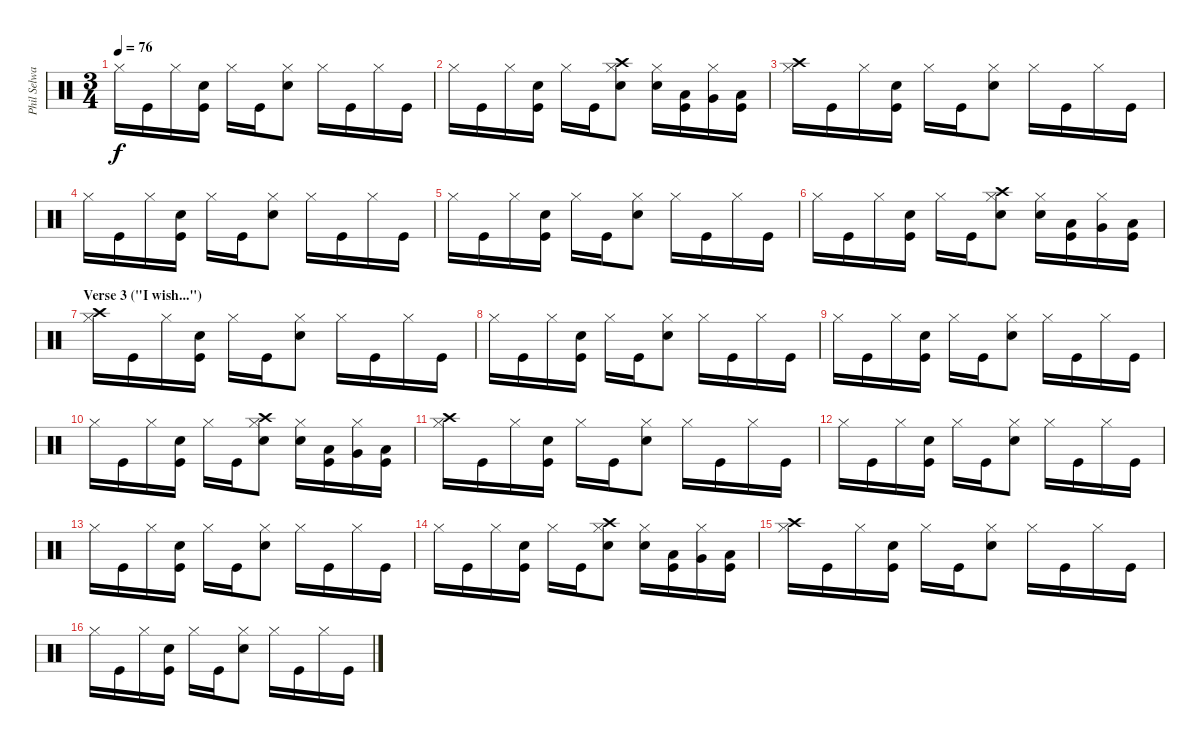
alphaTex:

\track ("Phil Selway" "Phil Selwa") {instrument percussion}
\staff {score}
\articulation defaults
\ts (3 4)
\tempo 76
\clef neutral
\ks c "Hi-Hat (closed)".16{dy f} "Kick (hit)".16 "Hi-Hat (closed)".16
("Kick (hit)" "Snare (hit) 2").16 "Hi-Hat (closed)".16 "Kick (hit)".16 ("Snare (hit) 2" "Hi-Hat (closed)").8 "Hi-Hat (closed)".16 "Kick (hit)".16 "Hi-Hat (closed)".16 "Kick (hit)".16 |
"Hi-Hat (closed)".16 "Kick (hit)".16 "Hi-Hat (closed)".16 ("Kick (hit)" "Snare (hit) 2").16 "Hi-Hat (closed)".16 "Kick (hit)".16 ("Snare (hit) 2" "Hi-Hat (closed)" "Crash high (hit)").8 ("Snare (hit) 2" "Hi-Hat (closed)").16 ("Kick (hit)" "Low Tom (hit)").16 ("Hi-Hat (closed)" "Very Low Tom (hit)").16 ("Kick (hit)" "Low Floor Tom (hit)").16 |
("Hi-Hat (closed)" "Crash high (hit)").16 "Kick (hit)".16 "Hi-Hat (closed)".16 ("Kick (hit)" "Snare (hit) 2").16 "Hi-Hat (closed)".16 "Kick (hit)".16 ("Snare (hit) 2" "Hi-Hat (closed)").8 "Hi-Hat (closed)".16 "Kick (hit)".16 "Hi-Hat (closed)".16 "Kick (hit)".16 |
"Hi-Hat (closed)".16 "Kick (hit)".16 "Hi-Hat (closed)".16 ("Kick (hit)" "Snare (hit) 2").16 "Hi-Hat (closed)".16 "Kick (hit)".16 ("Snare (hit) 2" "Hi-Hat (closed)").8 "Hi-Hat (closed)".16 "Kick (hit)".16 "Hi-Hat (closed)".16 "Kick (hit)".16 |
"Hi-Hat (closed)".16 "Kick (hit)".16 "Hi-Hat (closed)".16 ("Kick (hit)" "Snare (hit) 2").16 "Hi-Hat (closed)".16 "Kick (hit)".16 ("Snare (hit) 2" "Hi-Hat (closed)").8 "Hi-Hat (closed)".16 "Kick (hit)".16 "Hi-Hat (closed)".16 "Kick (hit)".16 |
"Hi-Hat (closed)".16 "Kick (hit)".16 "Hi-Hat (closed)".16 ("Kick (hit)" "Snare (hit) 2").16 "Hi-Hat (closed)".16 "Kick (hit)".16 ("Snare (hit) 2" "Hi-Hat (closed)" "Crash high (hit)").8 ("Snare (hit) 2" "Hi-Hat (closed)").16 ("Kick (hit)" "Low Tom (hit)").16 ("Hi-Hat (closed)" "Very Low Tom (hit)").16 ("Kick (hit)" "Low Floor Tom (hit)").16 |
\section ("" "Verse 3 (\"I wish...\")")
("Hi-Hat (closed)" "Crash high (hit)").16 "Kick (hit)".16 "Hi-Hat (closed)".16 ("Kick (hit)" "Snare (hit) 2").16 "Hi-Hat (closed)".16 "Kick (hit)".16 ("Snare (hit) 2" "Hi-Hat (closed)").8 "Hi-Hat (closed)".16 "Kick (hit)".16 "Hi-Hat (closed)".16 "Kick (hit)".16 |
"Hi-Hat (closed)".16 "Kick (hit)".16 "Hi-Hat (closed)".16 ("Kick (hit)" "Snare (hit) 2").16 "Hi-Hat (closed)".16 "Kick (hit)".16 ("Snare (hit) 2" "Hi-Hat (closed)").8 "Hi-Hat (closed)".16 "Kick (hit)".16 "Hi-Hat (closed)".16 "Kick (hit)".16 |
"Hi-Hat (closed)".16 "Kick (hit)".16 "Hi-Hat (closed)".16 ("Kick (hit)" "Snare (hit) 2").16 "Hi-Hat (closed)".16 "Kick (hit)".16 ("Snare (hit) 2" "Hi-Hat (closed)").8 "Hi-Hat (closed)".16 "Kick (hit)".16 "Hi-Hat (closed)".16 "Kick (hit)".16 |
"Hi-Hat (closed)".16 "Kick (hit)".16 "Hi-Hat (closed)".16 ("Kick (hit)" "Snare (hit) 2").16 "Hi-Hat (closed)".16 "Kick (hit)".16 ("Snare (hit) 2" "Hi-Hat (closed)" "Crash high (hit)").8 ("Snare (hit) 2" "Hi-Hat (closed)").16 ("Kick (hit)" "Low Tom (hit)").16 ("Hi-Hat (closed)" "Very Low Tom (hit)").16 ("Kick (hit)" "Low Floor Tom (hit)").16 |
("Hi-Hat (closed)" "Crash high (hit)").16 "Kick (hit)".16 "Hi-Hat (closed)".16 ("Kick (hit)" "Snare (hit) 2").16 "Hi-Hat (closed)".16 "Kick (hit)".16 ("Snare (hit) 2" "Hi-Hat (closed)").8 "Hi-Hat (closed)".16 "Kick (hit)".16 "Hi-Hat (closed)".16 "Kick (hit)".16 |
"Hi-Hat (closed)".16 "Kick (hit)".16 "Hi-Hat (closed)".16 ("Kick (hit)" "Snare (hit) 2").16 "Hi-Hat (closed)".16 "Kick (hit)".16 ("Snare (hit) 2" "Hi-Hat (closed)").8 "Hi-Hat (closed)".16 "Kick (hit)".16 "Hi-Hat (closed)".16 "Kick (hit)".16 |
"Hi-Hat (closed)".16 "Kick (hit)".16 "Hi-Hat (closed)".16 ("Kick (hit)" "Snare (hit) 2").16 "Hi-Hat (closed)".16 "Kick (hit)".16 ("Snare (hit) 2" "Hi-Hat (closed)").8 "Hi-Hat (closed)".16 "Kick (hit)".16 "Hi-Hat (closed)".16 "Kick (hit)".16 |
"Hi-Hat (closed)".16 "Kick (hit)".16 "Hi-Hat (closed)".16 ("Kick (hit)" "Snare (hit) 2").16 "Hi-Hat (closed)".16 "Kick (hit)".16 ("Snare (hit) 2" "Hi-Hat (closed)" "Crash high (hit)").8 ("Snare (hit) 2" "Hi-Hat (closed)").16 ("Kick (hit)" "Low Tom (hit)").16 ("Hi-Hat (closed)" "Very Low Tom (hit)").16 ("Kick (hit)" "Low Floor Tom (hit)").16 |
("Hi-Hat (closed)" "Crash high (hit)").16 "Kick (hit)".16 "Hi-Hat (closed)".16 ("Kick (hit)" "Snare (hit) 2").16 "Hi-Hat (closed)".16 "Kick (hit)".16 ("Snare (hit) 2" "Hi-Hat (closed)").8 "Hi-Hat (closed)".16 "Kick (hit)".16 "Hi-Hat (closed)".16 "Kick (hit)".16 |
"Hi-Hat (closed)".16 "Kick (hit)".16 "Hi-Hat (closed)".16 ("Kick (hit)" "Snare (hit) 2").16 "Hi-Hat (closed)".16 "Kick (hit)".16 ("Snare (hit) 2" "Hi-Hat (closed)").8 "Hi-Hat (closed)".16 "Kick (hit)".16 "Hi-Hat (closed)".16 "Kick (hit)".16
